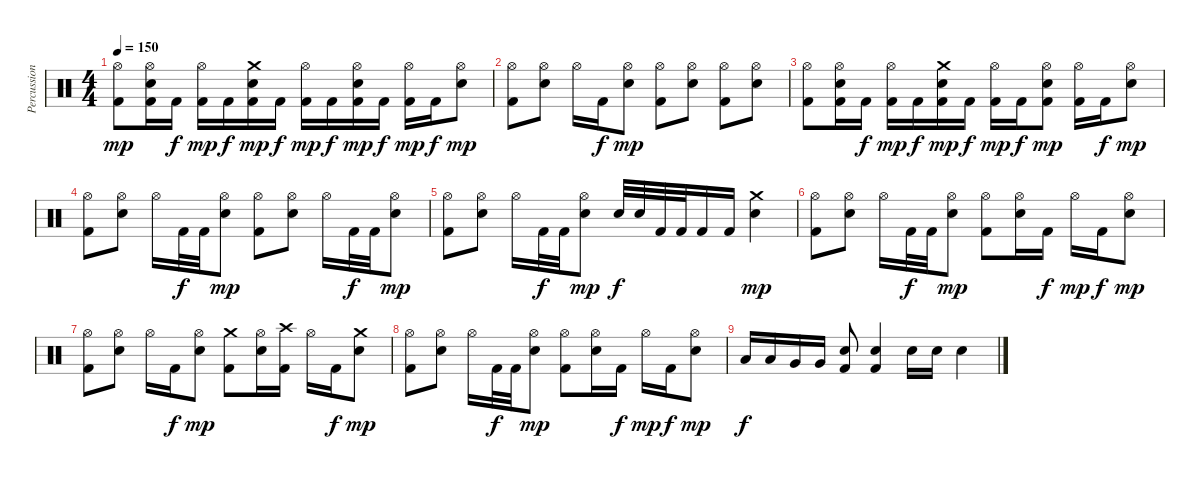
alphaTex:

\track ("Percussion" "Percussion") {instrument percussion}
\staff {score}
\articulation defaults
\ts (4 4)
\tempo 150
\clef neutral
\ks c
("Hi-Hat (open)" "Kick (hit) 2").8{dy mp} ("Snare (hit) 2" "Hi-Hat (open)" "Kick (hit) 2").16 "Kick (hit) 2".16{dy f} ("Hi-Hat (open)" "Kick (hit) 2").16{dy mp} "Kick (hit) 2".16{dy f} ("Crash medium (hit)" "Snare (hit) 2" "Kick (hit) 2").16{dy mp} "Kick (hit) 2".16{dy f} ("Hi-Hat (open)" "Kick (hit) 2").16{dy mp} "Kick (hit) 2".16{dy f} ("Snare (hit) 2" "Hi-Hat (open)" "Kick (hit) 2").16{dy mp} "Kick (hit) 2".16{dy f} ("Hi-Hat (open)" "Kick (hit) 2").16{dy mp} "Kick (hit) 2".16{dy f} ("Snare (hit) 2" "Hi-Hat (open)").8{dy mp} |
("Hi-Hat (open)" "Kick (hit) 2").8 ("Snare (hit) 2" "Hi-Hat (open)").8 "Hi-Hat (open)".16 "Kick (hit) 2".16{dy f} ("Snare (hit) 2" "Hi-Hat (open)").8{dy mp} ("Hi-Hat (open)" "Kick (hit) 2").8 ("Snare (hit) 2" "Hi-Hat (open)").8 ("Hi-Hat (open)" "Kick (hit) 2").8 ("Snare (hit) 2" "Hi-Hat (open)").8 |
("Hi-Hat (open)" "Kick (hit) 2").8 ("Snare (hit) 2" "Hi-Hat (open)" "Kick (hit) 2").16 "Kick (hit) 2".16{dy f} ("Hi-Hat (open)" "Kick (hit) 2").16{dy mp} "Kick (hit) 2".16{dy f} ("Crash medium (hit)" "Snare (hit) 2" "Kick (hit) 2").16{dy mp} "Kick (hit) 2".16{dy f} ("Hi-Hat (open)" "Kick (hit) 2").16{dy mp} "Kick (hit) 2".16{dy f} ("Snare (hit) 2" "Hi-Hat (open)" "Kick (hit) 2").8{dy mp} ("Hi-Hat (open)" "Kick (hit) 2").16 "Kick (hit) 2".16{dy f} ("Snare (hit) 2" "Hi-Hat (open)").8{dy mp} |
("Hi-Hat (open)" "Kick (hit) 2").8 ("Snare (hit) 2" "Hi-Hat (open)").8 "Hi-Hat (open)".16 "Kick (hit) 2".32{dy f} "Kick (hit) 2".32 ("Snare (hit) 2" "Hi-Hat (open)").8{dy mp} ("Hi-Hat (open)" "Kick (hit) 2").8 ("Snare (hit) 2" "Hi-Hat (open)").8 "Hi-Hat (open)".16 "Kick (hit) 2".32{dy f} "Kick (hit) 2".32 ("Snare (hit) 2" "Hi-Hat (open)").8{dy mp} |
("Hi-Hat (open)" "Kick (hit) 2").8 ("Snare (hit) 2" "Hi-Hat (open)").8 "Hi-Hat (open)".16 "Kick (hit) 2".32{dy f} "Kick (hit) 2".32 ("Snare (hit) 2" "Hi-Hat (open)").8{dy mp} "Snare (hit) 2".32{dy f} "Snare (hit) 2".32 "Kick (hit) 2".32 "Kick (hit) 2".32 "Kick (hit) 2".16 "Kick (hit) 2".16 ("Crash medium (hit)" "Snare (hit) 2").4{dy mp} |
("Hi-Hat (open)" "Kick (hit) 2").8 ("Snare (hit) 2" "Hi-Hat (open)").8 "Hi-Hat (open)".16 "Kick (hit) 2".32{dy f} "Kick (hit) 2".32 ("Snare (hit) 2" "Hi-Hat (open)").8{dy mp} ("Hi-Hat (open)" "Kick (hit) 2").8 ("Snare (hit) 2" "Hi-Hat (open)").16 "Kick (hit) 2".16{dy f} "Hi-Hat (open)".16{dy mp} "Kick (hit) 2".16{dy f} ("Snare (hit) 2" "Hi-Hat (open)").8{dy mp} |
("Hi-Hat (open)" "Kick (hit) 2").8 ("Snare (hit) 2" "Hi-Hat (open)").8 "Hi-Hat (open)".16 "Kick (hit) 2".16{dy f} ("Snare (hit) 2" "Hi-Hat (open)").8{dy mp} ("Crash medium (hit)" "Kick (hit) 2").8 ("Snare (hit) 2" "Hi-Hat (open)").16 ("Crash high (hit)" "Kick (hit) 2").16 "Hi-Hat (open)".16 "Kick (hit) 2".16{dy f} ("Crash medium (hit)" "Snare (hit) 2").8{dy mp} |
("Hi-Hat (open)" "Kick (hit) 2").8 ("Snare (hit) 2" "Hi-Hat (open)").8 "Hi-Hat (open)".16 "Kick (hit) 2".32{dy f} "Kick (hit) 2".32 ("Snare (hit) 2" "Hi-Hat (open)").8{dy mp} ("Hi-Hat (open)" "Kick (hit) 2").8 ("Snare (hit) 2" "Hi-Hat (open)").16 "Kick (hit) 2".16{dy f} "Hi-Hat (open)".16{dy mp} "Kick (hit) 2".16{dy f} ("Snare (hit) 2" "Hi-Hat (open)").8{dy mp} |
"Low Tom (hit)".16{dy f} "Low Tom (hit)".16 "Very Low Tom (hit)".16 "Very Low Tom (hit)".16 ("Snare (hit) 2" "Kick (hit) 2").8 ("Snare (hit) 2" "Kick (hit) 2").4 "Snare (hit) 2".16 "Snare (hit) 2".16 "Snare (hit) 2".4
